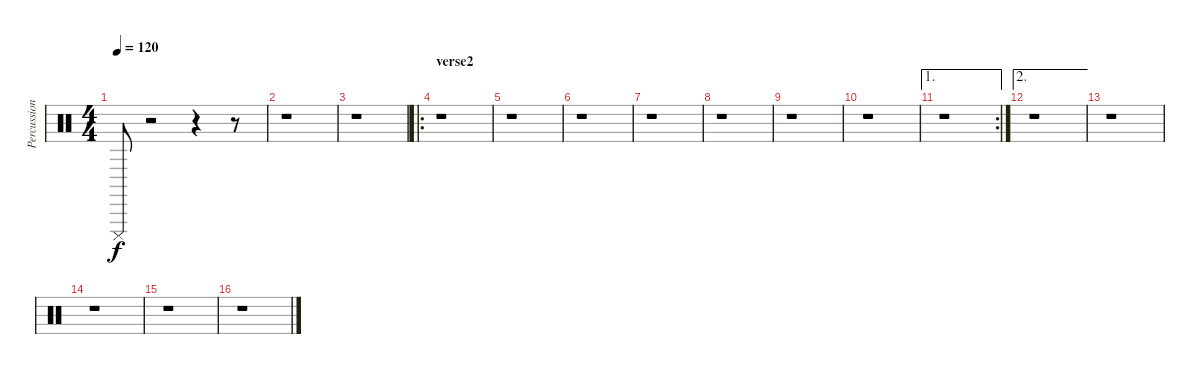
\track ("Percussions" "Percussion") {instrument percussion}
\staff {score}
\articulation defaults
\ts (4 4)
\tempo 120
\clef neutral
\ks c "Cuica (mute)".8{dy f}
r.2 r.4 r.8 |
r.1 |
r.1 |
\ro
\section ("" "verse2")
r.1 |
r.1 |
r.1 |
r.1 |
r.1 |
r.1 |
r.1 |
\ae 1
\rc 2
r.1 |
\ae 2
r.1 |
r.1 |
r.1 |
r.1 |
r.1
